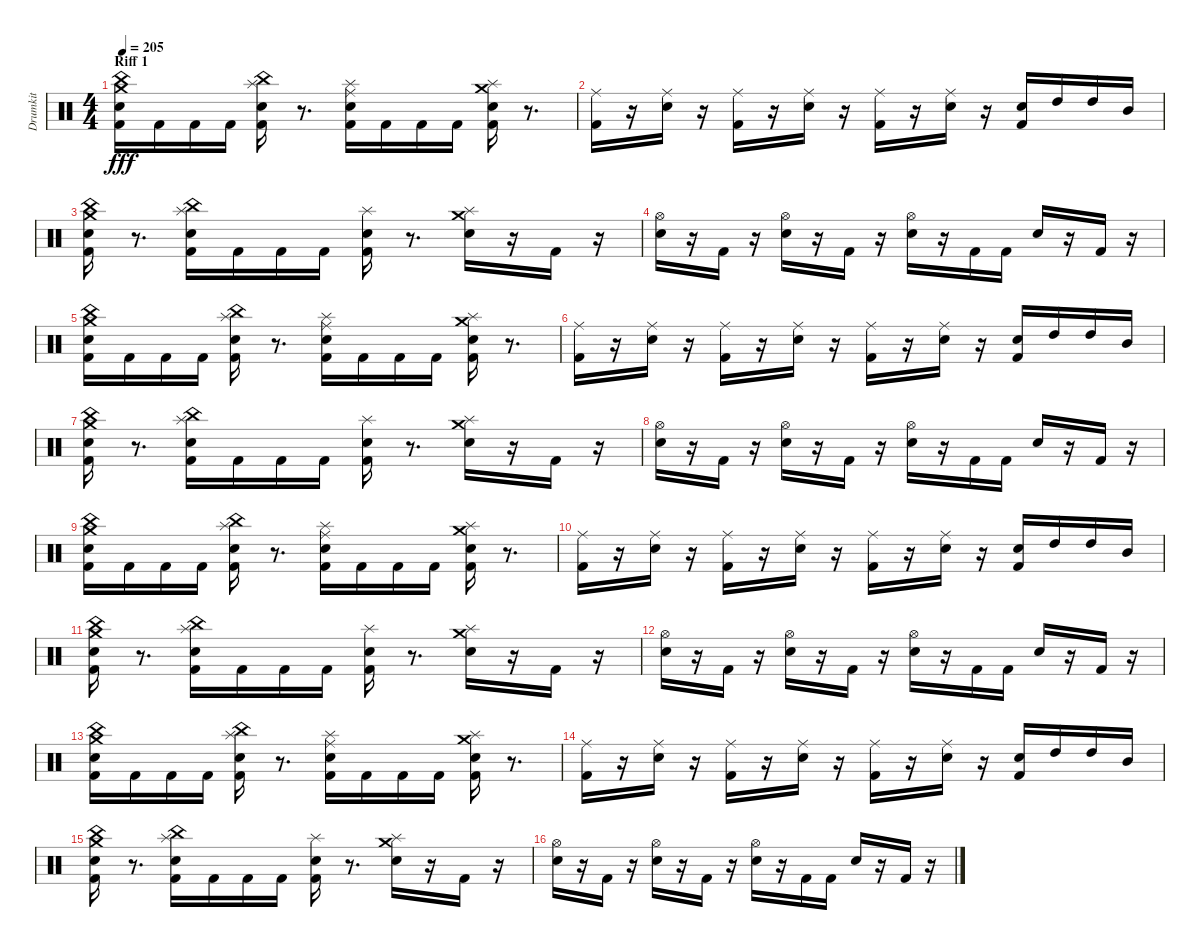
\track ("Drumkit" "Drumkit") {instrument percussion}
\staff {score}
\articulation defaults
\ts (4 4)
\section ("" "Riff 1")
\tempo 205
\clef neutral
\ks c
("Kick (hit) 2" "Snare (hit) 2" "Crash medium (hit)" "China (hit)").16{dy fff} "Kick (hit) 2".16 "Kick (hit) 2".16 "Kick (hit) 2".16 ("Kick (hit) 2" "Snare (hit) 2" "Splash (hit)" "China (hit)").16 r.8{d} ("Kick (hit) 2" "Snare (hit) 2" "Ride (middle)" "Splash (hit)").16 "Kick (hit) 2".16 "Kick (hit) 2".16 "Kick (hit) 2".16 ("Kick (hit) 2" "Snare (hit) 2" "Splash (hit)" "Crash medium (hit)").16 r.8{d} |
("Kick (hit) 2" "Ride (middle)").16 r.16 ("Snare (hit) 2" "Ride (middle)").16 r.16 ("Kick (hit) 2" "Ride (middle)").16 r.16 ("Snare (hit) 2" "Ride (middle)").16 r.16 ("Kick (hit) 2" "Ride (middle)").16 r.16 ("Snare (hit) 2" "Ride (middle)").16 r.16 ("Kick (hit) 2" "Snare (hit) 2").16 "High Tom (hit)".16 "High Tom (hit)".16 "Mid Tom (hit)".16 |
("Kick (hit) 2" "Snare (hit) 2" "Crash medium (hit)" "China (hit)").16 r.8{d} ("Kick (hit) 2" "Snare (hit) 2" "Splash (hit)" "China (hit)").16 "Kick (hit) 2".16 "Kick (hit) 2".16 "Kick (hit) 2".16 ("Kick (hit) 2" "Snare (hit) 2" "Splash (hit)").16 r.8{d} ("Snare (hit) 2" "Splash (hit)" "Crash medium (hit)").16 r.16 "Kick (hit) 2".16 r.16 |
("Snare (hit) 2" "Hi-Hat (open)").16 r.16 "Kick (hit) 2".16 r.16 ("Snare (hit) 2" "Hi-Hat (open)").16 r.16 "Kick (hit) 2".16 r.16 ("Snare (hit) 2" "Hi-Hat (open)").16 r.16 "Kick (hit) 2".16 "Kick (hit) 2".16 "Snare (hit) 2".16 r.16 "Kick (hit) 2".16 r.16 |
("Kick (hit) 2" "Snare (hit) 2" "Crash medium (hit)" "China (hit)").16 "Kick (hit) 2".16 "Kick (hit) 2".16 "Kick (hit) 2".16 ("Kick (hit) 2" "Snare (hit) 2" "Splash (hit)" "China (hit)").16 r.8{d} ("Kick (hit) 2" "Snare (hit) 2" "Ride (middle)" "Splash (hit)").16 "Kick (hit) 2".16 "Kick (hit) 2".16 "Kick (hit) 2".16 ("Kick (hit) 2" "Snare (hit) 2" "Splash (hit)" "Crash medium (hit)").16 r.8{d} |
("Kick (hit) 2" "Ride (middle)").16 r.16 ("Snare (hit) 2" "Ride (middle)").16 r.16 ("Kick (hit) 2" "Ride (middle)").16 r.16 ("Snare (hit) 2" "Ride (middle)").16 r.16 ("Kick (hit) 2" "Ride (middle)").16 r.16 ("Snare (hit) 2" "Ride (middle)").16 r.16 ("Kick (hit) 2" "Snare (hit) 2").16 "High Tom (hit)".16 "High Tom (hit)".16 "Mid Tom (hit)".16 |
("Kick (hit) 2" "Snare (hit) 2" "Crash medium (hit)" "China (hit)").16 r.8{d} ("Kick (hit) 2" "Snare (hit) 2" "Splash (hit)" "China (hit)").16 "Kick (hit) 2".16 "Kick (hit) 2".16 "Kick (hit) 2".16 ("Kick (hit) 2" "Snare (hit) 2" "Splash (hit)").16 r.8{d} ("Snare (hit) 2" "Splash (hit)" "Crash medium (hit)").16 r.16 "Kick (hit) 2".16 r.16 |
("Snare (hit) 2" "Hi-Hat (open)").16 r.16 "Kick (hit) 2".16 r.16 ("Snare (hit) 2" "Hi-Hat (open)").16 r.16 "Kick (hit) 2".16 r.16 ("Snare (hit) 2" "Hi-Hat (open)").16 r.16 "Kick (hit) 2".16 "Kick (hit) 2".16 "Snare (hit) 2".16 r.16 "Kick (hit) 2".16 r.16 |
("Kick (hit) 2" "Snare (hit) 2" "Crash medium (hit)" "China (hit)").16 "Kick (hit) 2".16 "Kick (hit) 2".16 "Kick (hit) 2".16 ("Kick (hit) 2" "Snare (hit) 2" "Splash (hit)" "China (hit)").16 r.8{d} ("Kick (hit) 2" "Snare (hit) 2" "Ride (middle)" "Splash (hit)").16 "Kick (hit) 2".16 "Kick (hit) 2".16 "Kick (hit) 2".16 ("Kick (hit) 2" "Snare (hit) 2" "Splash (hit)" "Crash medium (hit)").16 r.8{d} |
("Kick (hit) 2" "Ride (middle)").16 r.16 ("Snare (hit) 2" "Ride (middle)").16 r.16 ("Kick (hit) 2" "Ride (middle)").16 r.16 ("Snare (hit) 2" "Ride (middle)").16 r.16 ("Kick (hit) 2" "Ride (middle)").16 r.16 ("Snare (hit) 2" "Ride (middle)").16 r.16 ("Kick (hit) 2" "Snare (hit) 2").16 "High Tom (hit)".16 "High Tom (hit)".16 "Mid Tom (hit)".16 |
("Kick (hit) 2" "Snare (hit) 2" "Crash medium (hit)" "China (hit)").16 r.8{d} ("Kick (hit) 2" "Snare (hit) 2" "Splash (hit)" "China (hit)").16 "Kick (hit) 2".16 "Kick (hit) 2".16 "Kick (hit) 2".16 ("Kick (hit) 2" "Snare (hit) 2" "Splash (hit)").16 r.8{d} ("Snare (hit) 2" "Splash (hit)" "Crash medium (hit)").16 r.16 "Kick (hit) 2".16 r.16 |
("Snare (hit) 2" "Hi-Hat (open)").16 r.16 "Kick (hit) 2".16 r.16 ("Snare (hit) 2" "Hi-Hat (open)").16 r.16 "Kick (hit) 2".16 r.16 ("Snare (hit) 2" "Hi-Hat (open)").16 r.16 "Kick (hit) 2".16 "Kick (hit) 2".16 "Snare (hit) 2".16 r.16 "Kick (hit) 2".16 r.16 |
("Kick (hit) 2" "Snare (hit) 2" "Crash medium (hit)" "China (hit)").16 "Kick (hit) 2".16 "Kick (hit) 2".16 "Kick (hit) 2".16 ("Kick (hit) 2" "Snare (hit) 2" "Splash (hit)" "China (hit)").16 r.8{d} ("Kick (hit) 2" "Snare (hit) 2" "Ride (middle)" "Splash (hit)").16 "Kick (hit) 2".16 "Kick (hit) 2".16 "Kick (hit) 2".16 ("Kick (hit) 2" "Snare (hit) 2" "Splash (hit)" "Crash medium (hit)").16 r.8{d} |
("Kick (hit) 2" "Ride (middle)").16 r.16 ("Snare (hit) 2" "Ride (middle)").16 r.16 ("Kick (hit) 2" "Ride (middle)").16 r.16 ("Snare (hit) 2" "Ride (middle)").16 r.16 ("Kick (hit) 2" "Ride (middle)").16 r.16 ("Snare (hit) 2" "Ride (middle)").16 r.16 ("Kick (hit) 2" "Snare (hit) 2").16 "High Tom (hit)".16 "High Tom (hit)".16 "Mid Tom (hit)".16 |
("Kick (hit) 2" "Snare (hit) 2" "Crash medium (hit)" "China (hit)").16 r.8{d} ("Kick (hit) 2" "Snare (hit) 2" "Splash (hit)" "China (hit)").16 "Kick (hit) 2".16 "Kick (hit) 2".16 "Kick (hit) 2".16 ("Kick (hit) 2" "Snare (hit) 2" "Splash (hit)").16 r.8{d} ("Snare (hit) 2" "Splash (hit)" "Crash medium (hit)").16 r.16 "Kick (hit) 2".16 r.16 |
("Snare (hit) 2" "Hi-Hat (open)").16 r.16 "Kick (hit) 2".16 r.16 ("Snare (hit) 2" "Hi-Hat (open)").16 r.16 "Kick (hit) 2".16 r.16 ("Snare (hit) 2" "Hi-Hat (open)").16 r.16 "Kick (hit) 2".16 "Kick (hit) 2".16 "Snare (hit) 2".16 r.16 "Kick (hit) 2".16 r.16
